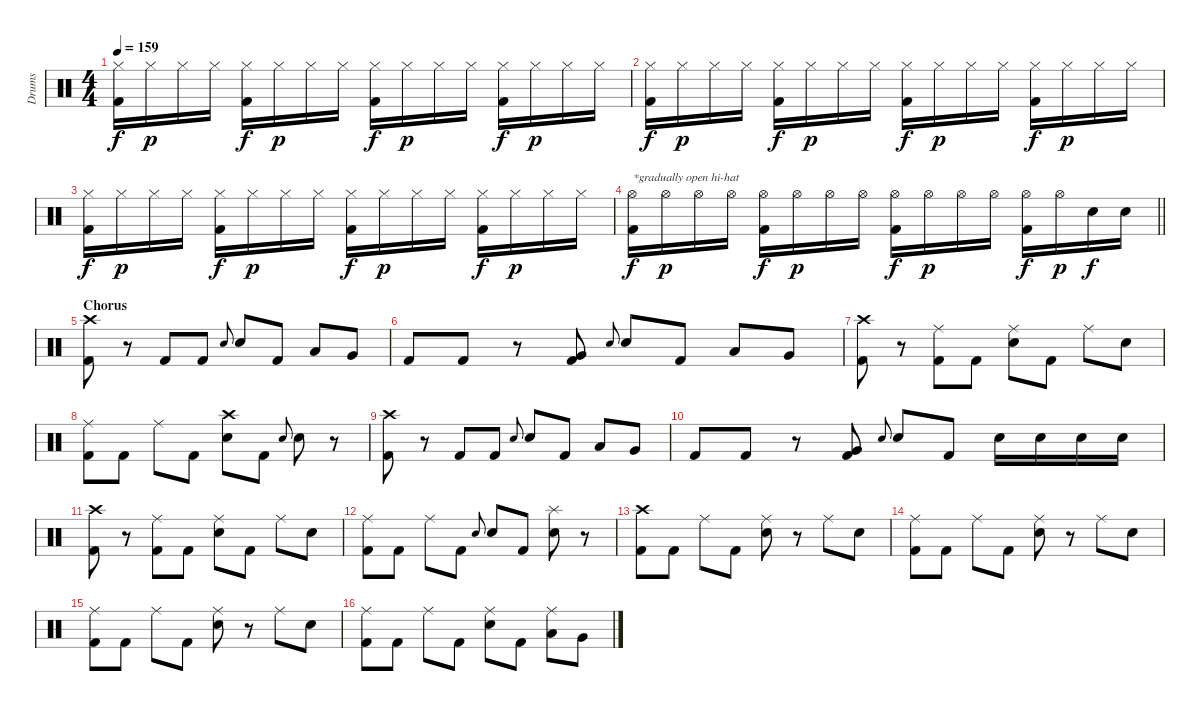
\track ("Drums" "Drums") {instrument percussion}
\staff {score}
\articulation defaults
\ts (4 4)
\tempo 159
\clef neutral
\ks c
("Hi-Hat (closed)" "Kick (hit) 2").16{dy f} "Hi-Hat (closed)".16{dy p} "Hi-Hat (closed)".16 "Hi-Hat (closed)".16 ("Hi-Hat (closed)" "Kick (hit) 2").16{dy f} "Hi-Hat (closed)".16{dy p} "Hi-Hat (closed)".16 "Hi-Hat (closed)".16 ("Hi-Hat (closed)" "Kick (hit) 2").16{dy f} "Hi-Hat (closed)".16{dy p} "Hi-Hat (closed)".16 "Hi-Hat (closed)".16 ("Hi-Hat (closed)" "Kick (hit) 2").16{dy f} "Hi-Hat (closed)".16{dy p} "Hi-Hat (closed)".16 "Hi-Hat (closed)".16 |
("Hi-Hat (closed)" "Kick (hit) 2").16{dy f} "Hi-Hat (closed)".16{dy p} "Hi-Hat (closed)".16 "Hi-Hat (closed)".16 ("Hi-Hat (closed)" "Kick (hit) 2").16{dy f} "Hi-Hat (closed)".16{dy p} "Hi-Hat (closed)".16 "Hi-Hat (closed)".16 ("Hi-Hat (closed)" "Kick (hit) 2").16{dy f} "Hi-Hat (closed)".16{dy p} "Hi-Hat (closed)".16 "Hi-Hat (closed)".16 ("Hi-Hat (closed)" "Kick (hit) 2").16{dy f} "Hi-Hat (closed)".16{dy p} "Hi-Hat (closed)".16 "Hi-Hat (closed)".16 |
("Hi-Hat (closed)" "Kick (hit) 2").16{dy f} "Hi-Hat (closed)".16{dy p} "Hi-Hat (closed)".16 "Hi-Hat (closed)".16 ("Hi-Hat (closed)" "Kick (hit) 2").16{dy f} "Hi-Hat (closed)".16{dy p} "Hi-Hat (closed)".16 "Hi-Hat (closed)".16 ("Hi-Hat (closed)" "Kick (hit) 2").16{dy f} "Hi-Hat (closed)".16{dy p} "Hi-Hat (closed)".16 "Hi-Hat (closed)".16 ("Hi-Hat (closed)" "Kick (hit) 2").16{dy f} "Hi-Hat (closed)".16{dy p} "Hi-Hat (closed)".16 "Hi-Hat (closed)".16 |
\barLineRight lightlight
("Hi-Hat (open)" "Kick (hit) 2").16{txt "*gradually open hi-hat" dy f} "Hi-Hat (open)".16{dy p} "Hi-Hat (open)".16 "Hi-Hat (open)".16 ("Hi-Hat (open)" "Kick (hit) 2").16{dy f} "Hi-Hat (open)".16{dy p} "Hi-Hat (open)".16 "Hi-Hat (open)".16 ("Hi-Hat (open)" "Kick (hit) 2").16{dy f} "Hi-Hat (open)".16{dy p} "Hi-Hat (open)".16 "Hi-Hat (open)".16 ("Hi-Hat (open)" "Kick (hit) 2").16{dy f} "Hi-Hat (open)".16{dy p} "Electric Snare (hit)".16{dy f} "Electric Snare (hit)".16 |
\section ("" "Chorus")
("Crash high (hit)" "Kick (hit) 2").8 r.8 "Kick (hit) 2".8 "Kick (hit) 2".8 "Electric Snare (hit)".8{gr onbeat} "Electric Snare (hit)".8 "Kick (hit) 2".8 "Low Tom (hit)".8 "Very Low Tom (hit)".8 |
"Kick (hit) 2".8 "Kick (hit) 2".8 r.8 ("Very Low Tom (hit)" "Kick (hit) 2").8 "Electric Snare (hit)".8{gr onbeat} "Electric Snare (hit)".8 "Kick (hit) 2".8 "Low Tom (hit)".8 "Very Low Tom (hit)".8 |
("Crash high (hit)" "Kick (hit) 2").8 r.8 ("Ride (middle)" "Kick (hit) 2").8 "Kick (hit) 2".8 ("Ride (middle)" "Electric Snare (hit)").8 "Kick (hit) 2".8 "Ride (middle)".8 "Electric Snare (hit)".8 |
("Ride (middle)" "Kick (hit) 2").8 "Kick (hit) 2".8 "Ride (middle)".8 "Kick (hit) 2".8 ("Crash high (hit)" "Electric Snare (hit)").8 "Kick (hit) 2".8 "Electric Snare (hit)".8{gr onbeat} "Electric Snare (hit)".8 r.8 |
("Crash high (hit)" "Kick (hit) 2").8 r.8 "Kick (hit) 2".8 "Kick (hit) 2".8 "Electric Snare (hit)".8{gr onbeat} "Electric Snare (hit)".8 "Kick (hit) 2".8 "Low Tom (hit)".8 "Very Low Tom (hit)".8 |
"Kick (hit) 2".8 "Kick (hit) 2".8 r.8 ("Very Low Tom (hit)" "Kick (hit) 2").8 "Electric Snare (hit)".8{gr onbeat} "Electric Snare (hit)".8 "Kick (hit) 2".8 "Electric Snare (hit)".16 "Electric Snare (hit)".16 "Electric Snare (hit)".16 "Electric Snare (hit)".16 |
("Crash high (hit)" "Kick (hit) 2").8 r.8 ("Ride (middle)" "Kick (hit) 2").8 "Kick (hit) 2".8 ("Ride (middle)" "Electric Snare (hit)").8 "Kick (hit) 2".8 "Ride (middle)".8 "Electric Snare (hit)".8 |
("Ride (middle)" "Kick (hit) 2").8 "Kick (hit) 2".8 "Ride (middle)".8 "Kick (hit) 2".8 "Electric Snare (hit)".8{gr onbeat} "Electric Snare (hit)".8 "Kick (hit) 2".8 ("Splash (hit)" "Electric Snare (hit)").8 r.8 |
("Crash high (hit)" "Kick (hit) 2").8 "Kick (hit) 2".8 "Ride (middle)".8 "Kick (hit) 2".8 ("Ride (middle)" "Electric Snare (hit)").8 r.8 "Ride (middle)".8 "Electric Snare (hit)".8 |
("Ride (middle)" "Kick (hit) 2").8 "Kick (hit) 2".8 "Ride (middle)".8 "Kick (hit) 2".8 ("Ride (middle)" "Electric Snare (hit)").8 r.8 "Ride (middle)".8 "Electric Snare (hit)".8 |
("Ride (middle)" "Kick (hit) 2").8 "Kick (hit) 2".8 "Ride (middle)".8 "Kick (hit) 2".8 ("Ride (middle)" "Electric Snare (hit)").8 r.8 "Ride (middle)".8 "Electric Snare (hit)".8 |
("Ride (middle)" "Kick (hit) 2").8 "Kick (hit) 2".8 "Ride (middle)".8 "Kick (hit) 2".8 ("Ride (middle)" "Electric Snare (hit)").8 "Kick (hit) 2".8 ("Ride (middle)" "Low Tom (hit)").8 "Very Low Tom (hit)".8
